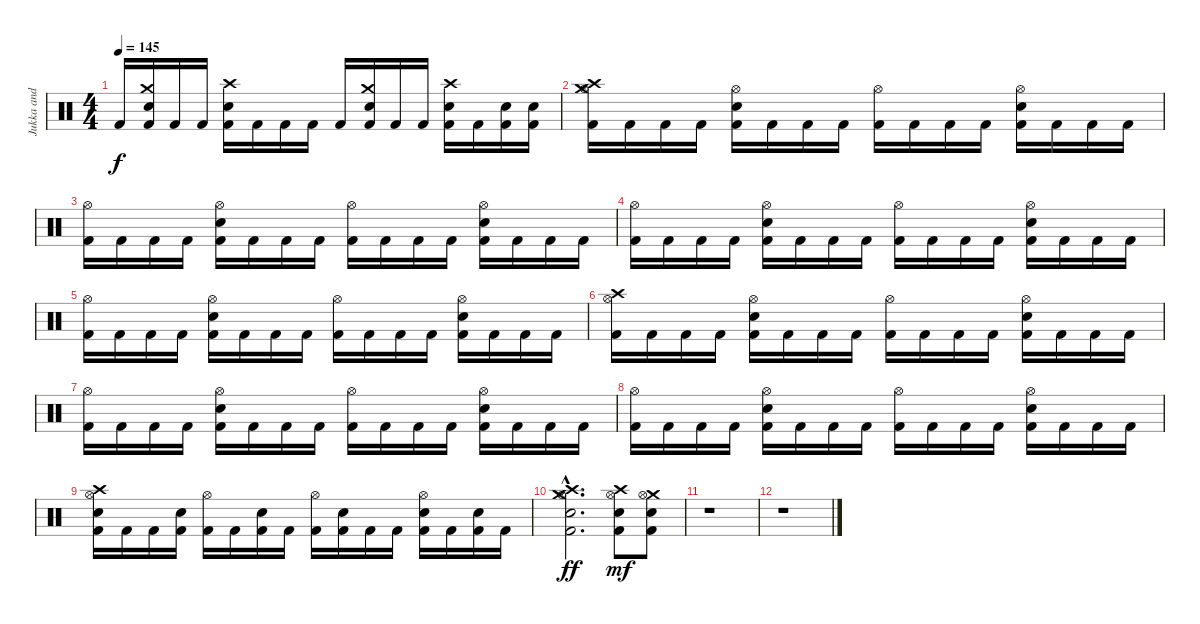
\track ("Jukka and his drums" "Jukka and ") {instrument percussion}
\staff {score}
\articulation defaults
\ts (4 4)
\tempo 145
\clef neutral
\ks c "Kick (hit) 2".16{dy f}
("Kick (hit) 2" "Crash medium (hit)" "Snare (hit) 2").16 "Kick (hit) 2".16 "Kick (hit) 2".16 ("Kick (hit) 2" "Crash high (hit)" "Snare (hit) 2").16 "Kick (hit) 2".16 "Kick (hit) 2".16 "Kick (hit) 2".16 "Kick (hit) 2".16 ("Kick (hit) 2" "Crash medium (hit)" "Snare (hit) 2").16 "Kick (hit) 2".16 "Kick (hit) 2".16 ("Kick (hit) 2" "Crash high (hit)" "Snare (hit) 2").16 "Kick (hit) 2".16 ("Kick (hit) 2" "Snare (hit) 2").16 ("Kick (hit) 2" "Snare (hit) 2").16 |
("Kick (hit) 2" "Crash high (hit)" "Crash medium (hit)" "Hi-Hat (open)").16 "Kick (hit) 2".16 "Kick (hit) 2".16 "Kick (hit) 2".16 ("Kick (hit) 2" "Hi-Hat (open)" "Snare (hit) 2").16 "Kick (hit) 2".16 "Kick (hit) 2".16 "Kick (hit) 2".16 ("Kick (hit) 2" "Hi-Hat (open)").16 "Kick (hit) 2".16 "Kick (hit) 2".16 "Kick (hit) 2".16 ("Kick (hit) 2" "Hi-Hat (open)" "Snare (hit) 2").16 "Kick (hit) 2".16 "Kick (hit) 2".16 "Kick (hit) 2".16 |
("Kick (hit) 2" "Hi-Hat (open)").16 "Kick (hit) 2".16 "Kick (hit) 2".16 "Kick (hit) 2".16 ("Kick (hit) 2" "Hi-Hat (open)" "Snare (hit) 2").16 "Kick (hit) 2".16 "Kick (hit) 2".16 "Kick (hit) 2".16 ("Kick (hit) 2" "Hi-Hat (open)").16 "Kick (hit) 2".16 "Kick (hit) 2".16 "Kick (hit) 2".16 ("Kick (hit) 2" "Hi-Hat (open)" "Snare (hit) 2").16 "Kick (hit) 2".16 "Kick (hit) 2".16 "Kick (hit) 2".16 |
("Kick (hit) 2" "Hi-Hat (open)").16 "Kick (hit) 2".16 "Kick (hit) 2".16 "Kick (hit) 2".16 ("Kick (hit) 2" "Hi-Hat (open)" "Snare (hit) 2").16 "Kick (hit) 2".16 "Kick (hit) 2".16 "Kick (hit) 2".16 ("Kick (hit) 2" "Hi-Hat (open)").16 "Kick (hit) 2".16 "Kick (hit) 2".16 "Kick (hit) 2".16 ("Kick (hit) 2" "Hi-Hat (open)" "Snare (hit) 2").16 "Kick (hit) 2".16 "Kick (hit) 2".16 "Kick (hit) 2".16 |
("Kick (hit) 2" "Hi-Hat (open)").16 "Kick (hit) 2".16 "Kick (hit) 2".16 "Kick (hit) 2".16 ("Kick (hit) 2" "Hi-Hat (open)" "Snare (hit) 2").16 "Kick (hit) 2".16 "Kick (hit) 2".16 "Kick (hit) 2".16 ("Kick (hit) 2" "Hi-Hat (open)").16 "Kick (hit) 2".16 "Kick (hit) 2".16 "Kick (hit) 2".16 ("Kick (hit) 2" "Hi-Hat (open)" "Snare (hit) 2").16 "Kick (hit) 2".16 "Kick (hit) 2".16 "Kick (hit) 2".16 |
("Kick (hit) 2" "Crash high (hit)" "Hi-Hat (open)").16 "Kick (hit) 2".16 "Kick (hit) 2".16 "Kick (hit) 2".16 ("Kick (hit) 2" "Hi-Hat (open)" "Snare (hit) 2").16 "Kick (hit) 2".16 "Kick (hit) 2".16 "Kick (hit) 2".16 ("Kick (hit) 2" "Hi-Hat (open)").16 "Kick (hit) 2".16 "Kick (hit) 2".16 "Kick (hit) 2".16 ("Kick (hit) 2" "Hi-Hat (open)" "Snare (hit) 2").16 "Kick (hit) 2".16 "Kick (hit) 2".16 "Kick (hit) 2".16 |
("Kick (hit) 2" "Hi-Hat (open)").16 "Kick (hit) 2".16 "Kick (hit) 2".16 "Kick (hit) 2".16 ("Kick (hit) 2" "Hi-Hat (open)" "Snare (hit) 2").16 "Kick (hit) 2".16 "Kick (hit) 2".16 "Kick (hit) 2".16 ("Kick (hit) 2" "Hi-Hat (open)").16 "Kick (hit) 2".16 "Kick (hit) 2".16 "Kick (hit) 2".16 ("Kick (hit) 2" "Hi-Hat (open)" "Snare (hit) 2").16 "Kick (hit) 2".16 "Kick (hit) 2".16 "Kick (hit) 2".16 |
("Kick (hit) 2" "Hi-Hat (open)").16 "Kick (hit) 2".16 "Kick (hit) 2".16 "Kick (hit) 2".16 ("Kick (hit) 2" "Hi-Hat (open)" "Snare (hit) 2").16 "Kick (hit) 2".16 "Kick (hit) 2".16 "Kick (hit) 2".16 ("Kick (hit) 2" "Hi-Hat (open)").16 "Kick (hit) 2".16 "Kick (hit) 2".16 "Kick (hit) 2".16 ("Kick (hit) 2" "Hi-Hat (open)" "Snare (hit) 2").16 "Kick (hit) 2".16 "Kick (hit) 2".16 "Kick (hit) 2".16 |
("Kick (hit) 2" "Crash high (hit)" "Hi-Hat (open)" "Snare (hit) 2").16 "Kick (hit) 2".16 "Kick (hit) 2".16 ("Kick (hit) 2" "Snare (hit) 2").16 ("Kick (hit) 2" "Hi-Hat (open)").16 "Kick (hit) 2".16 ("Kick (hit) 2" "Snare (hit) 2").16 "Kick (hit) 2".16 ("Kick (hit) 2" "Hi-Hat (open)").16 ("Kick (hit) 2" "Snare (hit) 2").16 "Kick (hit) 2".16 "Kick (hit) 2".16 ("Kick (hit) 2" "Hi-Hat (open)" "Snare (hit) 2").16 "Kick (hit) 2".16 ("Kick (hit) 2" "Snare (hit) 2").16 "Kick (hit) 2".16 |
("Kick (hit) 2"{hac} "Crash high (hit)"{hac} "Crash medium (hit)"{hac} "Hi-Hat (open)"{hac} "Snare (hit) 2"{hac}).2{d dy ff} ("Kick (hit) 2" "Crash high (hit)" "Hi-Hat (open)" "Snare (hit) 2").8{dy mf} ("Kick (hit) 2" "Crash medium (hit)" "Hi-Hat (open)" "Snare (hit) 2").8 |
r.1 |
r.1
